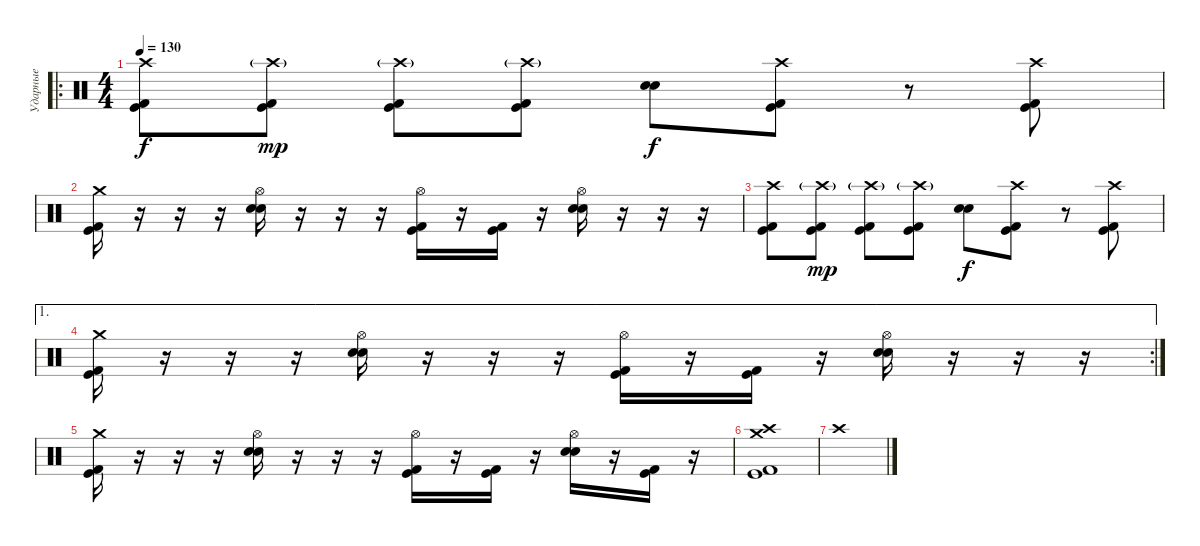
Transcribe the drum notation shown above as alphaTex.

\track ("Ударные" "Ударные") {instrument percussion}
\staff {score}
\articulation defaults
\ro
\ts (4 4)
\tempo 130
\clef neutral
\ks c
("Crash high (hit)" "Kick (hit)" "Kick (hit) 2").8{dy f} ("Crash high (hit)"{g} "Kick (hit)" "Kick (hit) 2").8{dy mp} ("Crash high (hit)"{g} "Kick (hit)" "Kick (hit) 2").8 ("Crash high (hit)"{g} "Kick (hit)" "Kick (hit) 2").8 ("Snare (hit) 2" "Electric Snare (hit)").8{dy f} ("Crash high (hit)" "Kick (hit)" "Kick (hit) 2").8 r.8 ("Crash high (hit)" "Kick (hit)" "Kick (hit) 2").8 |
("Crash medium (hit)" "Kick (hit)" "Kick (hit) 2").16 r.16 r.16 r.16 ("Hi-Hat (open)" "Snare (hit) 2" "Electric Snare (hit)").16 r.16 r.16 r.16 ("Hi-Hat (open)" "Kick (hit)" "Kick (hit) 2").16 r.16 ("Kick (hit)" "Kick (hit) 2").16 r.16 ("Hi-Hat (open)" "Electric Snare (hit)" "Snare (hit) 2").16 r.16 r.16 r.16 |
("Crash high (hit)" "Kick (hit)" "Kick (hit) 2").8 ("Crash high (hit)"{g} "Kick (hit)" "Kick (hit) 2").8{dy mp} ("Crash high (hit)"{g} "Kick (hit)" "Kick (hit) 2").8 ("Crash high (hit)"{g} "Kick (hit)" "Kick (hit) 2").8 ("Snare (hit) 2" "Electric Snare (hit)").8{dy f} ("Crash high (hit)" "Kick (hit)" "Kick (hit) 2").8 r.8 ("Crash high (hit)" "Kick (hit)" "Kick (hit) 2").8 |
\ae 1
\rc 2
("Crash medium (hit)" "Kick (hit)" "Kick (hit) 2").16 r.16 r.16 r.16 ("Hi-Hat (open)" "Snare (hit) 2" "Electric Snare (hit)").16 r.16 r.16 r.16 ("Hi-Hat (open)" "Kick (hit)" "Kick (hit) 2").16 r.16 ("Kick (hit)" "Kick (hit) 2").16 r.16 ("Hi-Hat (open)" "Electric Snare (hit)" "Snare (hit) 2").16 r.16 r.16 r.16 |
("Crash medium (hit)" "Kick (hit)" "Kick (hit) 2").16 r.16 r.16 r.16 ("Hi-Hat (open)" "Snare (hit) 2" "Electric Snare (hit)").16 r.16 r.16 r.16 ("Hi-Hat (open)" "Kick (hit)" "Kick (hit) 2").16 r.16 ("Kick (hit)" "Kick (hit) 2").16 r.16 ("Hi-Hat (open)" "Electric Snare (hit)" "Snare (hit) 2").16 r.16 ("Kick (hit)" "Kick (hit) 2").16 r.16 |
("Crash medium (hit)" "Crash high (hit)" "Kick (hit)" "Kick (hit) 2").1 |
"Crash high (hit)".1
